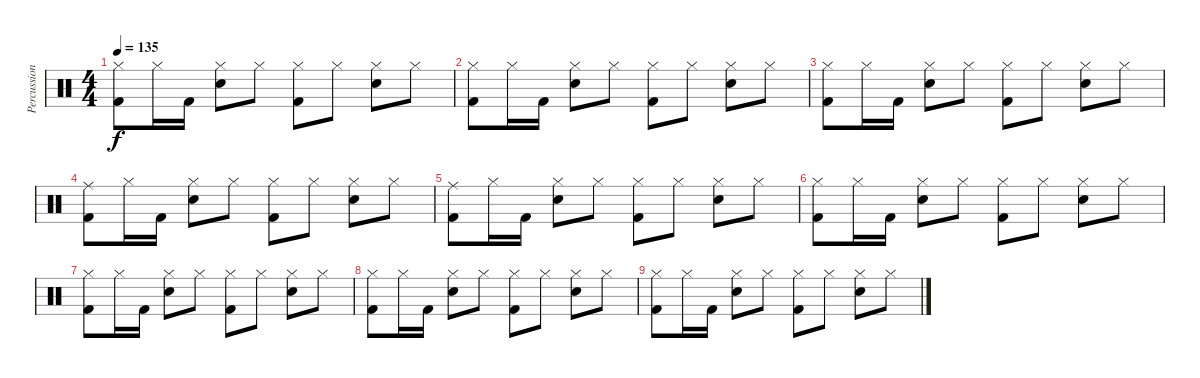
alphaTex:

\track ("Percussion" "Percussion") {instrument percussion}
\staff {score}
\articulation defaults
\ts (4 4)
\tempo 135
\clef neutral
\ks c
("Hi-Hat (closed)" "Kick (hit) 2").8{dy f} "Hi-Hat (closed)".16 "Kick (hit) 2".16 ("Hi-Hat (closed)" "Snare (hit) 2").8 "Hi-Hat (closed)".8 ("Hi-Hat (closed)" "Kick (hit) 2").8 "Hi-Hat (closed)".8 ("Hi-Hat (closed)" "Snare (hit) 2").8 "Hi-Hat (closed)".8 |
("Hi-Hat (closed)" "Kick (hit) 2").8 "Hi-Hat (closed)".16 "Kick (hit) 2".16 ("Hi-Hat (closed)" "Snare (hit) 2").8 "Hi-Hat (closed)".8 ("Hi-Hat (closed)" "Kick (hit) 2").8 "Hi-Hat (closed)".8 ("Hi-Hat (closed)" "Snare (hit) 2").8 "Hi-Hat (closed)".8 |
("Hi-Hat (closed)" "Kick (hit) 2").8 "Hi-Hat (closed)".16 "Kick (hit) 2".16 ("Hi-Hat (closed)" "Snare (hit) 2").8 "Hi-Hat (closed)".8 ("Hi-Hat (closed)" "Kick (hit) 2").8 "Hi-Hat (closed)".8 ("Hi-Hat (closed)" "Snare (hit) 2").8 "Hi-Hat (closed)".8 |
("Ride (middle)" "Kick (hit) 2").8 "Hi-Hat (closed)".16 "Kick (hit) 2".16 ("Hi-Hat (closed)" "Snare (hit) 2").8 "Hi-Hat (closed)".8 ("Hi-Hat (closed)" "Kick (hit) 2").8 "Hi-Hat (closed)".8 ("Hi-Hat (closed)" "Snare (hit) 2").8 "Hi-Hat (closed)".8 |
("Ride (middle)" "Kick (hit) 2").8 "Hi-Hat (closed)".16 "Kick (hit) 2".16 ("Hi-Hat (closed)" "Snare (hit) 2").8 "Hi-Hat (closed)".8 ("Hi-Hat (closed)" "Kick (hit) 2").8 "Hi-Hat (closed)".8 ("Hi-Hat (closed)" "Snare (hit) 2").8 "Hi-Hat (closed)".8 |
("Hi-Hat (closed)" "Kick (hit) 2").8 "Hi-Hat (closed)".16 "Kick (hit) 2".16 ("Hi-Hat (closed)" "Snare (hit) 2").8 "Hi-Hat (closed)".8 ("Hi-Hat (closed)" "Kick (hit) 2").8 "Hi-Hat (closed)".8 ("Hi-Hat (closed)" "Snare (hit) 2").8 "Hi-Hat (closed)".8 |
("Hi-Hat (closed)" "Kick (hit) 2").8 "Hi-Hat (closed)".16 "Kick (hit) 2".16 ("Hi-Hat (closed)" "Snare (hit) 2").8 "Hi-Hat (closed)".8 ("Hi-Hat (closed)" "Kick (hit) 2").8 "Hi-Hat (closed)".8 ("Hi-Hat (closed)" "Snare (hit) 2").8 "Hi-Hat (closed)".8 |
("Hi-Hat (closed)" "Kick (hit) 2").8 "Hi-Hat (closed)".16 "Kick (hit) 2".16 ("Hi-Hat (closed)" "Snare (hit) 2").8 "Hi-Hat (closed)".8 ("Hi-Hat (closed)" "Kick (hit) 2").8 "Hi-Hat (closed)".8 ("Hi-Hat (closed)" "Snare (hit) 2").8 "Hi-Hat (closed)".8 |
("Hi-Hat (closed)" "Kick (hit) 2").8 "Hi-Hat (closed)".16 "Kick (hit) 2".16 ("Hi-Hat (closed)" "Snare (hit) 2").8 "Hi-Hat (closed)".8 ("Hi-Hat (closed)" "Kick (hit) 2").8 "Hi-Hat (closed)".8 ("Hi-Hat (closed)" "Snare (hit) 2").8 "Hi-Hat (closed)".8
